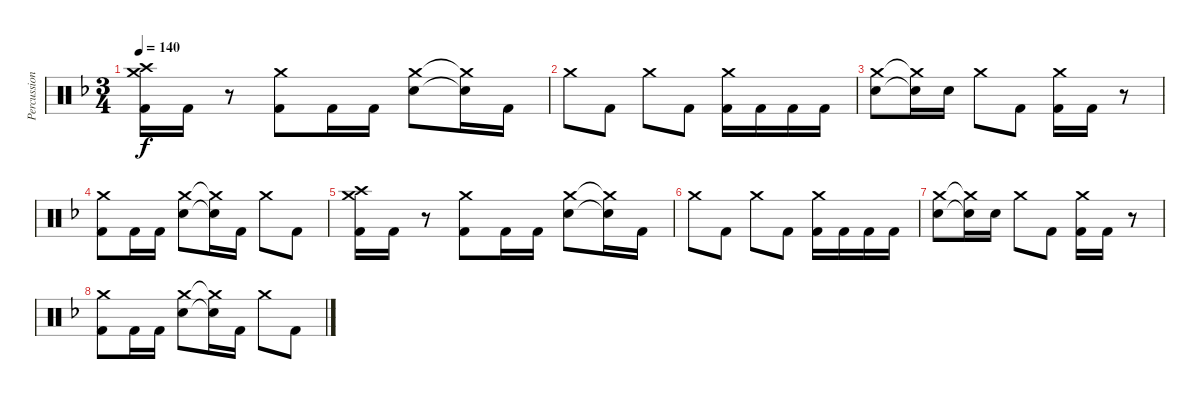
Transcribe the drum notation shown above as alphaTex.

\track ("Percussion" "Percussion") {instrument percussion}
\staff {score}
\articulation defaults
\ts (3 4)
\tempo 140
\clef neutral
\ks f
("Crash medium (hit)" "Crash high (hit)" "Kick (hit) 2").16{dy f volume 0} "Kick (hit) 2".16 r.8 ("Crash medium (hit)" "Kick (hit) 2").8 "Kick (hit) 2".16 "Kick (hit) 2".16 ("Crash medium (hit)" "Electric Snare (hit)").8 ("Crash medium (hit)"{t} "Electric Snare (hit)"{t}).16 "Kick (hit) 2".16 |
"Crash medium (hit)".8 "Kick (hit) 2".8 "Crash medium (hit)".8 "Kick (hit) 2".8 ("Crash medium (hit)" "Kick (hit) 2").16 "Kick (hit) 2".16 "Kick (hit) 2".16 "Kick (hit) 2".16 |
("Crash medium (hit)" "Electric Snare (hit)").8 ("Crash medium (hit)"{t} "Electric Snare (hit)"{t}).16 "Electric Snare (hit)".16 "Crash medium (hit)".8 "Kick (hit) 2".8 ("Crash medium (hit)" "Kick (hit) 2").16 "Kick (hit) 2".16 r.8 |
("Crash medium (hit)" "Kick (hit) 2").8 "Kick (hit) 2".16 "Kick (hit) 2".16 ("Crash medium (hit)" "Electric Snare (hit)").8 ("Crash medium (hit)"{t} "Electric Snare (hit)"{t}).16 "Kick (hit) 2".16 "Crash medium (hit)".8 "Kick (hit) 2".8 |
("Crash medium (hit)" "Crash high (hit)" "Kick (hit) 2").16 "Kick (hit) 2".16 r.8 ("Crash medium (hit)" "Kick (hit) 2").8 "Kick (hit) 2".16 "Kick (hit) 2".16 ("Crash medium (hit)" "Electric Snare (hit)").8 ("Crash medium (hit)"{t} "Electric Snare (hit)"{t}).16 "Kick (hit) 2".16 |
"Crash medium (hit)".8 "Kick (hit) 2".8 "Crash medium (hit)".8 "Kick (hit) 2".8 ("Crash medium (hit)" "Kick (hit) 2").16 "Kick (hit) 2".16 "Kick (hit) 2".16 "Kick (hit) 2".16 |
("Crash medium (hit)" "Electric Snare (hit)").8 ("Crash medium (hit)"{t} "Electric Snare (hit)"{t}).16 "Electric Snare (hit)".16 "Crash medium (hit)".8 "Kick (hit) 2".8 ("Crash medium (hit)" "Kick (hit) 2").16 "Kick (hit) 2".16 r.8 |
("Crash medium (hit)" "Kick (hit) 2").8 "Kick (hit) 2".16 "Kick (hit) 2".16 ("Crash medium (hit)" "Electric Snare (hit)").8 ("Crash medium (hit)"{t} "Electric Snare (hit)"{t}).16 "Kick (hit) 2".16 "Crash medium (hit)".8 "Kick (hit) 2".8
